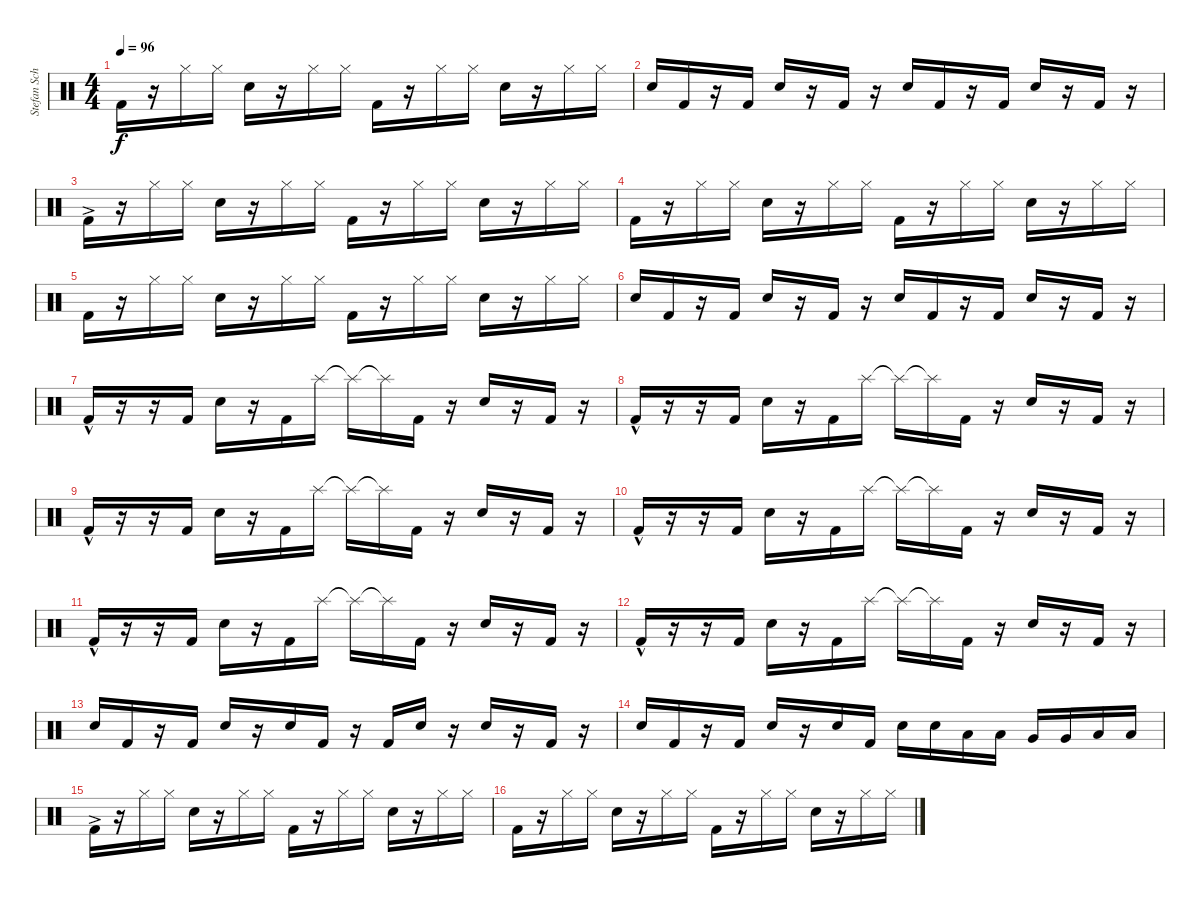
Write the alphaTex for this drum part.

\track ("Stefan Schwarzmann" "Stefan Sch") {instrument percussion}
\staff {score}
\articulation defaults
\ts (4 4)
\tempo 96
\clef neutral
\ks c "Kick (hit) 2".16{dy f}
r.16 "Hi-Hat (closed)".16 "Hi-Hat (closed)".16 "Snare (hit) 2".16 r.16 "Hi-Hat (closed)".16 "Hi-Hat (closed)".16 "Kick (hit) 2".16 r.16 "Hi-Hat (closed)".16 "Hi-Hat (closed)".16 "Snare (hit) 2".16 r.16 "Hi-Hat (closed)".16 "Hi-Hat (closed)".16 |
"Snare (hit) 2".16 "Kick (hit) 2".16 r.16 "Kick (hit) 2".16 "Snare (hit) 2".16 r.16 "Kick (hit) 2".16 r.16 "Snare (hit) 2".16 "Kick (hit) 2".16 r.16 "Kick (hit) 2".16 "Snare (hit) 2".16 r.16 "Kick (hit) 2".16 r.16 |
"Kick (hit) 2"{ac}.16 r.16 "Hi-Hat (closed)".16 "Hi-Hat (closed)".16 "Snare (hit) 2".16 r.16 "Hi-Hat (closed)".16 "Hi-Hat (closed)".16 "Kick (hit) 2".16 r.16 "Hi-Hat (closed)".16 "Hi-Hat (closed)".16 "Snare (hit) 2".16 r.16 "Hi-Hat (closed)".16 "Hi-Hat (closed)".16 |
"Kick (hit) 2".16 r.16 "Hi-Hat (closed)".16 "Hi-Hat (closed)".16 "Snare (hit) 2".16 r.16 "Hi-Hat (closed)".16 "Hi-Hat (closed)".16 "Kick (hit) 2".16 r.16 "Hi-Hat (closed)".16 "Hi-Hat (closed)".16 "Snare (hit) 2".16 r.16 "Hi-Hat (closed)".16 "Hi-Hat (closed)".16 |
"Kick (hit) 2".16 r.16 "Hi-Hat (closed)".16 "Hi-Hat (closed)".16 "Snare (hit) 2".16 r.16 "Hi-Hat (closed)".16 "Hi-Hat (closed)".16 "Kick (hit) 2".16 r.16 "Hi-Hat (closed)".16 "Hi-Hat (closed)".16 "Snare (hit) 2".16 r.16 "Hi-Hat (closed)".16 "Hi-Hat (closed)".16 |
"Snare (hit) 2".16 "Kick (hit) 2".16 r.16 "Kick (hit) 2".16 "Snare (hit) 2".16 r.16 "Kick (hit) 2".16 r.16 "Snare (hit) 2".16 "Kick (hit) 2".16 r.16 "Kick (hit) 2".16 "Snare (hit) 2".16 r.16 "Kick (hit) 2".16 r.16 |
"Kick (hit) 2"{hac}.16 r.16 r.16 "Kick (hit) 2".16 "Snare (hit) 2".16 r.16 "Kick (hit) 2".16 "Splash (hit)".16 "Splash (hit)"{t}.16 "Splash (hit)"{t}.16 "Kick (hit) 2".16 r.16 "Snare (hit) 2".16 r.16 "Kick (hit) 2".16 r.16 |
"Kick (hit) 2"{hac}.16 r.16 r.16 "Kick (hit) 2".16 "Snare (hit) 2".16 r.16 "Kick (hit) 2".16 "Splash (hit)".16 "Splash (hit)"{t}.16 "Splash (hit)"{t}.16 "Kick (hit) 2".16 r.16 "Snare (hit) 2".16 r.16 "Kick (hit) 2".16 r.16 |
"Kick (hit) 2"{hac}.16 r.16 r.16 "Kick (hit) 2".16 "Snare (hit) 2".16 r.16 "Kick (hit) 2".16 "Splash (hit)".16 "Splash (hit)"{t}.16 "Splash (hit)"{t}.16 "Kick (hit) 2".16 r.16 "Snare (hit) 2".16 r.16 "Kick (hit) 2".16 r.16 |
"Kick (hit) 2"{hac}.16 r.16 r.16 "Kick (hit) 2".16 "Snare (hit) 2".16 r.16 "Kick (hit) 2".16 "Splash (hit)".16 "Splash (hit)"{t}.16 "Splash (hit)"{t}.16 "Kick (hit) 2".16 r.16 "Snare (hit) 2".16 r.16 "Kick (hit) 2".16 r.16 |
"Kick (hit) 2"{hac}.16 r.16 r.16 "Kick (hit) 2".16 "Snare (hit) 2".16 r.16 "Kick (hit) 2".16 "Splash (hit)".16 "Splash (hit)"{t}.16 "Splash (hit)"{t}.16 "Kick (hit) 2".16 r.16 "Snare (hit) 2".16 r.16 "Kick (hit) 2".16 r.16 |
"Kick (hit) 2"{hac}.16 r.16 r.16 "Kick (hit) 2".16 "Snare (hit) 2".16 r.16 "Kick (hit) 2".16 "Splash (hit)".16 "Splash (hit)"{t}.16 "Splash (hit)"{t}.16 "Kick (hit) 2".16 r.16 "Snare (hit) 2".16 r.16 "Kick (hit) 2".16 r.16 |
"Snare (hit) 2".16 "Kick (hit) 2".16 r.16 "Kick (hit) 2".16 "Snare (hit) 2".16 r.16 "Snare (hit) 2".16 "Kick (hit) 2".16 r.16 "Kick (hit) 2".16 "Snare (hit) 2".16 r.16 "Snare (hit) 2".16 r.16 "Kick (hit) 2".16 r.16 |
"Snare (hit) 2".16 "Kick (hit) 2".16 r.16 "Kick (hit) 2".16 "Snare (hit) 2".16 r.16 "Snare (hit) 2".16 "Kick (hit) 2".16 "Snare (hit) 2".16 "Snare (hit) 2".16 "Low Tom (hit)".16 "Low Tom (hit)".16 "Very Low Tom (hit)".16 "Very Low Tom (hit)".16 "Low Floor Tom (hit)".16 "Low Floor Tom (hit)".16 |
"Kick (hit) 2"{ac}.16 r.16 "Hi-Hat (closed)".16 "Hi-Hat (closed)".16 "Snare (hit) 2".16 r.16 "Hi-Hat (closed)".16 "Hi-Hat (closed)".16 "Kick (hit) 2".16 r.16 "Hi-Hat (closed)".16 "Hi-Hat (closed)".16 "Snare (hit) 2".16 r.16 "Hi-Hat (closed)".16 "Hi-Hat (closed)".16 |
"Kick (hit) 2".16 r.16 "Hi-Hat (closed)".16 "Hi-Hat (closed)".16 "Snare (hit) 2".16 r.16 "Hi-Hat (closed)".16 "Hi-Hat (closed)".16 "Kick (hit) 2".16 r.16 "Hi-Hat (closed)".16 "Hi-Hat (closed)".16 "Snare (hit) 2".16 r.16 "Hi-Hat (closed)".16 "Hi-Hat (closed)".16
